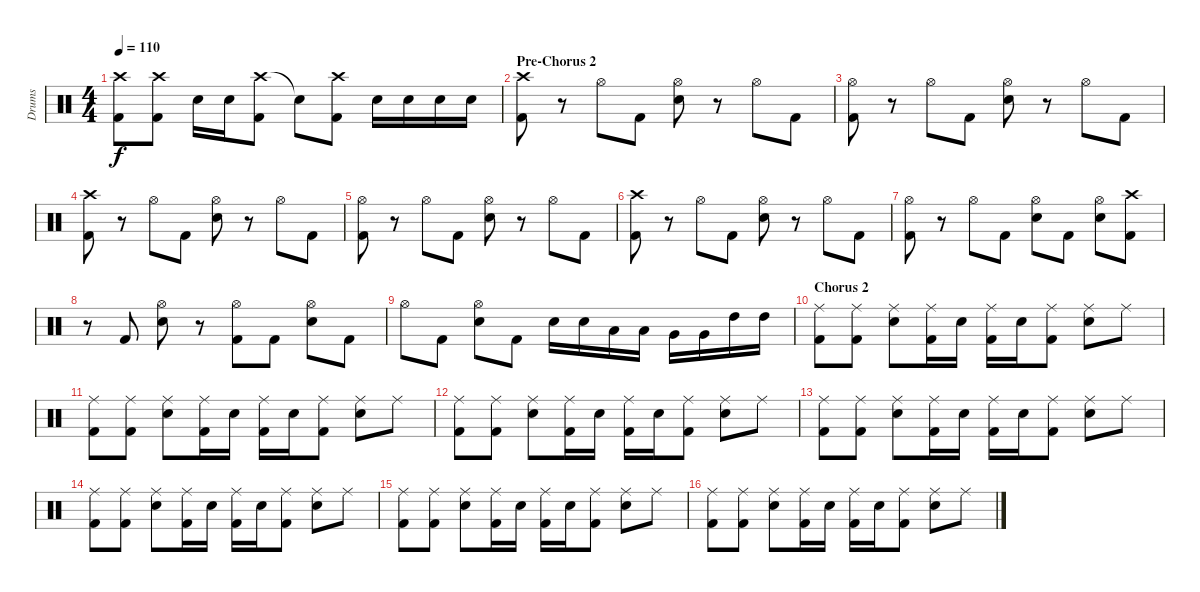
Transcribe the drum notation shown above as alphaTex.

\track ("Drums" "Drums") {instrument percussion}
\staff {score}
\articulation defaults
\ts (4 4)
\tempo 110
\clef neutral
\ks c
("Crash high (hit)"{t} "Kick (hit) 2"{t}).8{dy f} ("Crash high (hit)" "Kick (hit) 2").8 "Electric Snare (hit)".16 "Electric Snare (hit)".16 ("Crash high (hit)" "Kick (hit) 2").8 "Snare (hit)"{t}.8 ("Crash high (hit)" "Kick (hit) 2").8 "Electric Snare (hit)".16 "Electric Snare (hit)".16 "Electric Snare (hit)".16 "Electric Snare (hit)".16 |
\section ("" "Pre-Chorus 2")
("Crash high (hit)" "Kick (hit) 2").8 r.8 "Hi-Hat (open)".8 "Kick (hit) 2".8 ("Hi-Hat (open)" "Electric Snare (hit)").8 r.8 "Hi-Hat (open)".8 "Kick (hit) 2".8 |
("Hi-Hat (open)" "Kick (hit) 2").8 r.8 "Hi-Hat (open)".8 "Kick (hit) 2".8 ("Hi-Hat (open)" "Electric Snare (hit)").8 r.8 "Hi-Hat (open)".8 "Kick (hit) 2".8 |
("Crash high (hit)" "Kick (hit) 2").8 r.8 "Hi-Hat (open)".8 "Kick (hit) 2".8 ("Hi-Hat (open)" "Electric Snare (hit)").8 r.8 "Hi-Hat (open)".8 "Kick (hit) 2".8 |
("Hi-Hat (open)" "Kick (hit) 2").8 r.8 "Hi-Hat (open)".8 "Kick (hit) 2".8 ("Hi-Hat (open)" "Electric Snare (hit)").8 r.8 "Hi-Hat (open)".8 "Kick (hit) 2".8 |
("Crash high (hit)" "Kick (hit) 2").8 r.8 "Hi-Hat (open)".8 "Kick (hit) 2".8 ("Hi-Hat (open)" "Electric Snare (hit)").8 r.8 "Hi-Hat (open)".8 "Kick (hit) 2".8 |
("Hi-Hat (open)" "Kick (hit) 2").8 r.8 "Hi-Hat (open)".8 "Kick (hit) 2".8 ("Hi-Hat (open)" "Electric Snare (hit)").8 "Kick (hit) 2".8 ("Hi-Hat (open)" "Electric Snare (hit)").8 ("Crash high (hit)" "Kick (hit) 2").8 |
r.8 "Kick (hit) 2".8 ("Hi-Hat (open)" "Electric Snare (hit)").8 r.8 ("Hi-Hat (open)" "Kick (hit) 2").8 "Kick (hit) 2".8 ("Hi-Hat (open)" "Electric Snare (hit)").8 "Kick (hit) 2".8 |
"Hi-Hat (open)".8 "Kick (hit) 2".8 ("Hi-Hat (open)" "Electric Snare (hit)").8 "Kick (hit) 2".8 "Electric Snare (hit)".16 "Electric Snare (hit)".16 "Low Tom (hit)".16 "Low Tom (hit)".16 "Very Low Tom (hit)".16 "Very Low Tom (hit)".16 "High Tom (hit)".16 "High Tom (hit)".16 |
\section ("" "Chorus 2")
("Ride (middle)" "Kick (hit) 2").8 ("Ride (middle)" "Kick (hit) 2").8 ("Ride (middle)" "Electric Snare (hit)").8 ("Ride (middle)" "Kick (hit) 2").16 "Electric Snare (hit)".16 ("Ride (middle)" "Kick (hit) 2").16 "Electric Snare (hit)".16 ("Ride (middle)" "Kick (hit) 2").8 ("Ride (middle)" "Electric Snare (hit)").8 "Ride (middle)".8 |
("Ride (middle)" "Kick (hit) 2").8 ("Ride (middle)" "Kick (hit) 2").8 ("Ride (middle)" "Electric Snare (hit)").8 ("Ride (middle)" "Kick (hit) 2").16 "Electric Snare (hit)".16 ("Ride (middle)" "Kick (hit) 2").16 "Electric Snare (hit)".16 ("Ride (middle)" "Kick (hit) 2").8 ("Ride (middle)" "Electric Snare (hit)").8 "Ride (middle)".8 |
("Ride (middle)" "Kick (hit) 2").8 ("Ride (middle)" "Kick (hit) 2").8 ("Ride (middle)" "Electric Snare (hit)").8 ("Ride (middle)" "Kick (hit) 2").16 "Electric Snare (hit)".16 ("Ride (middle)" "Kick (hit) 2").16 "Electric Snare (hit)".16 ("Ride (middle)" "Kick (hit) 2").8 ("Ride (middle)" "Electric Snare (hit)").8 "Ride (middle)".8 |
("Ride (middle)" "Kick (hit) 2").8 ("Ride (middle)" "Kick (hit) 2").8 ("Ride (middle)" "Electric Snare (hit)").8 ("Ride (middle)" "Kick (hit) 2").16 "Electric Snare (hit)".16 ("Ride (middle)" "Kick (hit) 2").16 "Electric Snare (hit)".16 ("Ride (middle)" "Kick (hit) 2").8 ("Ride (middle)" "Electric Snare (hit)").8 "Ride (middle)".8 |
("Ride (middle)" "Kick (hit) 2").8 ("Ride (middle)" "Kick (hit) 2").8 ("Ride (middle)" "Electric Snare (hit)").8 ("Ride (middle)" "Kick (hit) 2").16 "Electric Snare (hit)".16 ("Ride (middle)" "Kick (hit) 2").16 "Electric Snare (hit)".16 ("Ride (middle)" "Kick (hit) 2").8 ("Ride (middle)" "Electric Snare (hit)").8 "Ride (middle)".8 |
("Ride (middle)" "Kick (hit) 2").8 ("Ride (middle)" "Kick (hit) 2").8 ("Ride (middle)" "Electric Snare (hit)").8 ("Ride (middle)" "Kick (hit) 2").16 "Electric Snare (hit)".16 ("Ride (middle)" "Kick (hit) 2").16 "Electric Snare (hit)".16 ("Ride (middle)" "Kick (hit) 2").8 ("Ride (middle)" "Electric Snare (hit)").8 "Ride (middle)".8 |
("Ride (middle)" "Kick (hit) 2").8 ("Ride (middle)" "Kick (hit) 2").8 ("Ride (middle)" "Electric Snare (hit)").8 ("Ride (middle)" "Kick (hit) 2").16 "Electric Snare (hit)".16 ("Ride (middle)" "Kick (hit) 2").16 "Electric Snare (hit)".16 ("Ride (middle)" "Kick (hit) 2").8 ("Ride (middle)" "Electric Snare (hit)").8 "Ride (middle)".8
